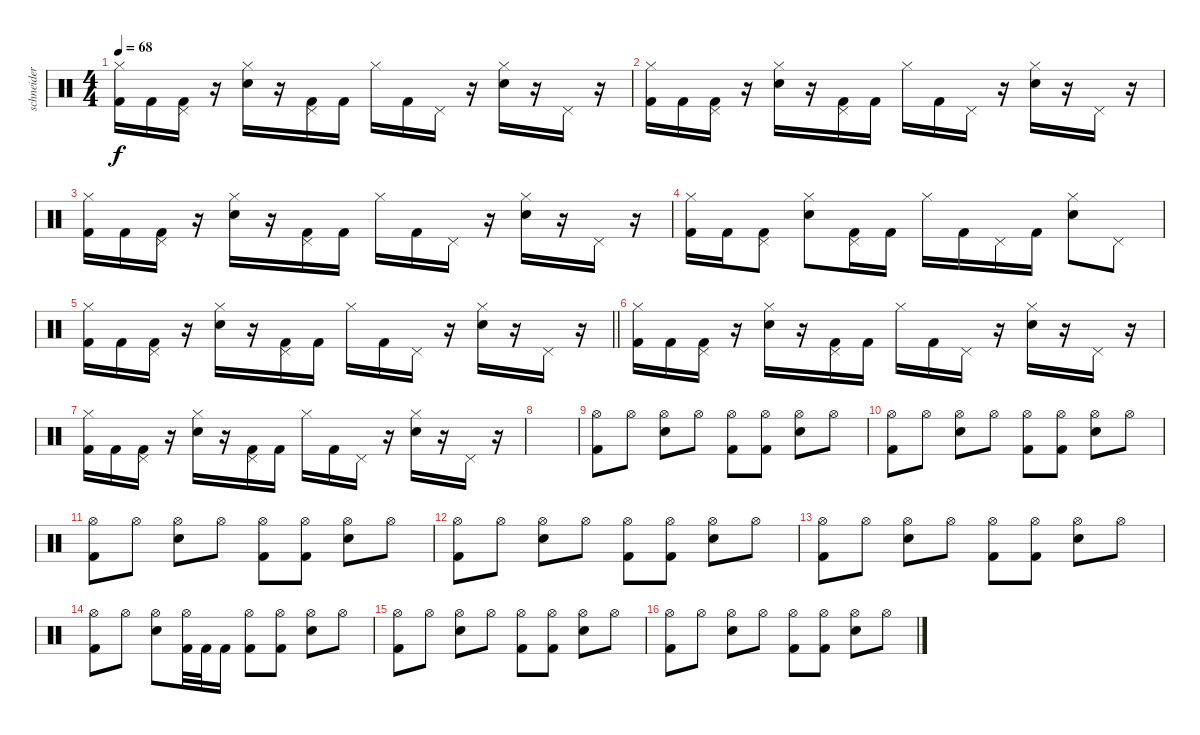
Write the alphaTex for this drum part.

\track ("schneider" "schneider") {instrument percussion}
\staff {score}
\articulation defaults
\ts (4 4)
\tempo 68
\clef neutral
\ks c
("Hi-Hat (closed)" "Kick (hit) 2").16{dy f} "Kick (hit) 2".16 ("Pedal Hi-Hat (hit)" "Kick (hit) 2").16 r.16 ("Hi-Hat (closed)" "Electric Snare (hit)").16 r.16 ("Pedal Hi-Hat (hit)" "Kick (hit) 2").16 "Kick (hit) 2".16 "Hi-Hat (closed)".16 "Kick (hit) 2".16 "Pedal Hi-Hat (hit)".16 r.16 ("Hi-Hat (closed)" "Electric Snare (hit)").16 r.16 "Pedal Hi-Hat (hit)".16 r.16 |
("Hi-Hat (closed)" "Kick (hit) 2").16 "Kick (hit) 2".16 ("Pedal Hi-Hat (hit)" "Kick (hit) 2").16 r.16 ("Hi-Hat (closed)" "Electric Snare (hit)").16 r.16 ("Pedal Hi-Hat (hit)" "Kick (hit) 2").16 "Kick (hit) 2".16 "Hi-Hat (closed)".16 "Kick (hit) 2".16 "Pedal Hi-Hat (hit)".16 r.16 ("Hi-Hat (closed)" "Electric Snare (hit)").16 r.16 "Pedal Hi-Hat (hit)".16 r.16 |
("Hi-Hat (closed)" "Kick (hit) 2").16 "Kick (hit) 2".16 ("Pedal Hi-Hat (hit)" "Kick (hit) 2").16 r.16 ("Hi-Hat (closed)" "Electric Snare (hit)").16 r.16 ("Pedal Hi-Hat (hit)" "Kick (hit) 2").16 "Kick (hit) 2".16 "Hi-Hat (closed)".16 "Kick (hit) 2".16 "Pedal Hi-Hat (hit)".16 r.16 ("Hi-Hat (closed)" "Electric Snare (hit)").16 r.16 "Pedal Hi-Hat (hit)".16 r.16 |
("Hi-Hat (closed)" "Kick (hit) 2").16 "Kick (hit) 2".16 ("Pedal Hi-Hat (hit)" "Kick (hit) 2").8 ("Hi-Hat (closed)" "Electric Snare (hit)").8 ("Pedal Hi-Hat (hit)" "Kick (hit) 2").16 "Kick (hit) 2".16 "Hi-Hat (closed)".16 "Kick (hit) 2".16 "Pedal Hi-Hat (hit)".16 "Kick (hit) 2".16 ("Hi-Hat (closed)" "Electric Snare (hit)").8 "Pedal Hi-Hat (hit)".8 |
\barLineRight lightlight
("Hi-Hat (closed)" "Kick (hit) 2").16 "Kick (hit) 2".16 ("Pedal Hi-Hat (hit)" "Kick (hit) 2").16 r.16 ("Hi-Hat (closed)" "Electric Snare (hit)").16 r.16 ("Pedal Hi-Hat (hit)" "Kick (hit) 2").16 "Kick (hit) 2".16 "Hi-Hat (closed)".16 "Kick (hit) 2".16 "Pedal Hi-Hat (hit)".16 r.16 ("Hi-Hat (closed)" "Electric Snare (hit)").16 r.16 "Pedal Hi-Hat (hit)".16 r.16 |
\section ("" "")
("Hi-Hat (closed)" "Kick (hit) 2").16 "Kick (hit) 2".16 ("Pedal Hi-Hat (hit)" "Kick (hit) 2").16 r.16 ("Hi-Hat (closed)" "Electric Snare (hit)").16 r.16 ("Pedal Hi-Hat (hit)" "Kick (hit) 2").16 "Kick (hit) 2".16 "Hi-Hat (closed)".16 "Kick (hit) 2".16 "Pedal Hi-Hat (hit)".16 r.16 ("Hi-Hat (closed)" "Electric Snare (hit)").16 r.16 "Pedal Hi-Hat (hit)".16 r.16 |
("Hi-Hat (closed)" "Kick (hit) 2").16 "Kick (hit) 2".16 ("Pedal Hi-Hat (hit)" "Kick (hit) 2").16 r.16 ("Hi-Hat (closed)" "Electric Snare (hit)").16 r.16 ("Pedal Hi-Hat (hit)" "Kick (hit) 2").16 "Kick (hit) 2".16 "Hi-Hat (closed)".16 "Kick (hit) 2".16 "Pedal Hi-Hat (hit)".16 r.16 ("Hi-Hat (closed)" "Electric Snare (hit)").16 r.16 "Pedal Hi-Hat (hit)".16 r.16 |
|
("Hi-Hat (open)" "Kick (hit) 2").8 "Hi-Hat (open)".8 ("Hi-Hat (open)" "Electric Snare (hit)").8 "Hi-Hat (open)".8 ("Hi-Hat (open)" "Kick (hit) 2").8 ("Hi-Hat (open)" "Kick (hit) 2").8 ("Hi-Hat (open)" "Electric Snare (hit)").8 "Hi-Hat (open)".8 |
("Hi-Hat (open)" "Kick (hit) 2").8 "Hi-Hat (open)".8 ("Hi-Hat (open)" "Electric Snare (hit)").8 "Hi-Hat (open)".8 ("Hi-Hat (open)" "Kick (hit) 2").8 ("Hi-Hat (open)" "Kick (hit) 2").8 ("Hi-Hat (open)" "Electric Snare (hit)").8 "Hi-Hat (open)".8 |
("Hi-Hat (open)" "Kick (hit) 2").8 "Hi-Hat (open)".8 ("Hi-Hat (open)" "Electric Snare (hit)").8 "Hi-Hat (open)".8 ("Hi-Hat (open)" "Kick (hit) 2").8 ("Hi-Hat (open)" "Kick (hit) 2").8 ("Hi-Hat (open)" "Electric Snare (hit)").8 "Hi-Hat (open)".8 |
("Hi-Hat (open)" "Kick (hit) 2").8 "Hi-Hat (open)".8 ("Hi-Hat (open)" "Electric Snare (hit)").8 "Hi-Hat (open)".8 ("Hi-Hat (open)" "Kick (hit) 2").8 ("Hi-Hat (open)" "Kick (hit) 2").8 ("Hi-Hat (open)" "Electric Snare (hit)").8 "Hi-Hat (open)".8 |
("Hi-Hat (open)" "Kick (hit) 2").8 "Hi-Hat (open)".8 ("Hi-Hat (open)" "Electric Snare (hit)").8 "Hi-Hat (open)".8 ("Hi-Hat (open)" "Kick (hit) 2").8 ("Hi-Hat (open)" "Kick (hit) 2").8 ("Hi-Hat (open)" "Electric Snare (hit)").8 "Hi-Hat (open)".8 |
("Hi-Hat (open)" "Kick (hit) 2").8 "Hi-Hat (open)".8 ("Hi-Hat (open)" "Electric Snare (hit)").8 ("Hi-Hat (open)" "Kick (hit) 2").32 "Kick (hit) 2".32 "Kick (hit) 2".16 ("Hi-Hat (open)" "Kick (hit) 2").8 ("Hi-Hat (open)" "Kick (hit) 2").8 ("Hi-Hat (open)" "Electric Snare (hit)").8 "Hi-Hat (open)".8 |
("Hi-Hat (open)" "Kick (hit) 2").8 "Hi-Hat (open)".8 ("Hi-Hat (open)" "Electric Snare (hit)").8 "Hi-Hat (open)".8 ("Hi-Hat (open)" "Kick (hit) 2").8 ("Hi-Hat (open)" "Kick (hit) 2").8 ("Hi-Hat (open)" "Electric Snare (hit)").8 "Hi-Hat (open)".8 |
("Hi-Hat (open)" "Kick (hit) 2").8 "Hi-Hat (open)".8 ("Hi-Hat (open)" "Electric Snare (hit)").8 "Hi-Hat (open)".8 ("Hi-Hat (open)" "Kick (hit) 2").8 ("Hi-Hat (open)" "Kick (hit) 2").8 ("Hi-Hat (open)" "Electric Snare (hit)").8 "Hi-Hat (open)".8
